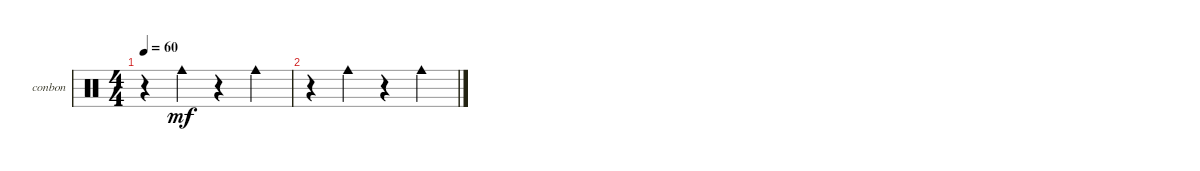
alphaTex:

\defaultSystemsLayout 4
\bracketExtendMode groupsimilarinstruments
\firstSystemTrackNameOrientation horizontal
\otherSystemsTrackNameOrientation horizontal
\track ("Bongos N Congas" "conbon") {instrument percussion}
\staff {score}
\articulation defaults
\ts (4 4)
\tempo 60
\clef neutral
\ks c
r.4{dy mf} "Cowbell medium (hit)".4 r.4 "Cowbell medium (hit)".4 |
r.4 "Cowbell medium (hit)".4 r.4 "Cowbell medium (hit)".4
